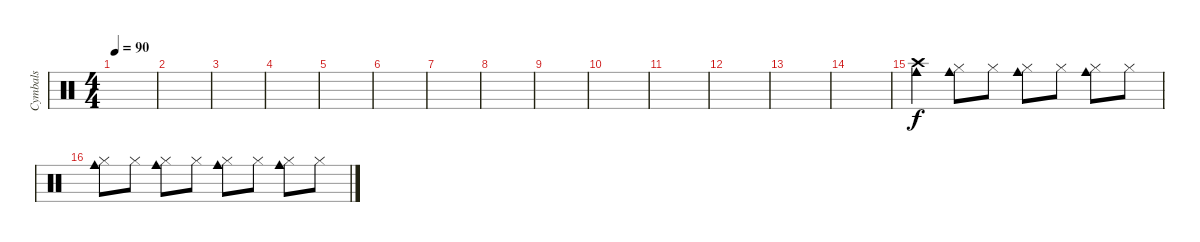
\track ("Cymbals" "Cymbals") {instrument percussion}
\staff {score}
\articulation defaults
\ts (4 4)
\tempo 90
\clef neutral
\ks c
|
|
|
|
|
|
|
|
|
|
|
|
|
|
("Cowbell medium (hit)" "Crash high (hit)").4 ("Cowbell medium (hit)" "Hi-Hat (closed)").8 "Hi-Hat (closed)".8 ("Cowbell medium (hit)" "Hi-Hat (closed)").8 "Hi-Hat (closed)".8 ("Cowbell medium (hit)" "Hi-Hat (closed)").8 "Hi-Hat (closed)".8 |
("Cowbell medium (hit)" "Hi-Hat (closed)").8 "Hi-Hat (closed)".8 ("Cowbell medium (hit)" "Hi-Hat (closed)").8 "Hi-Hat (closed)".8 ("Cowbell medium (hit)" "Hi-Hat (closed)").8 "Hi-Hat (closed)".8 ("Cowbell medium (hit)" "Hi-Hat (closed)").8 "Hi-Hat (closed)".8
